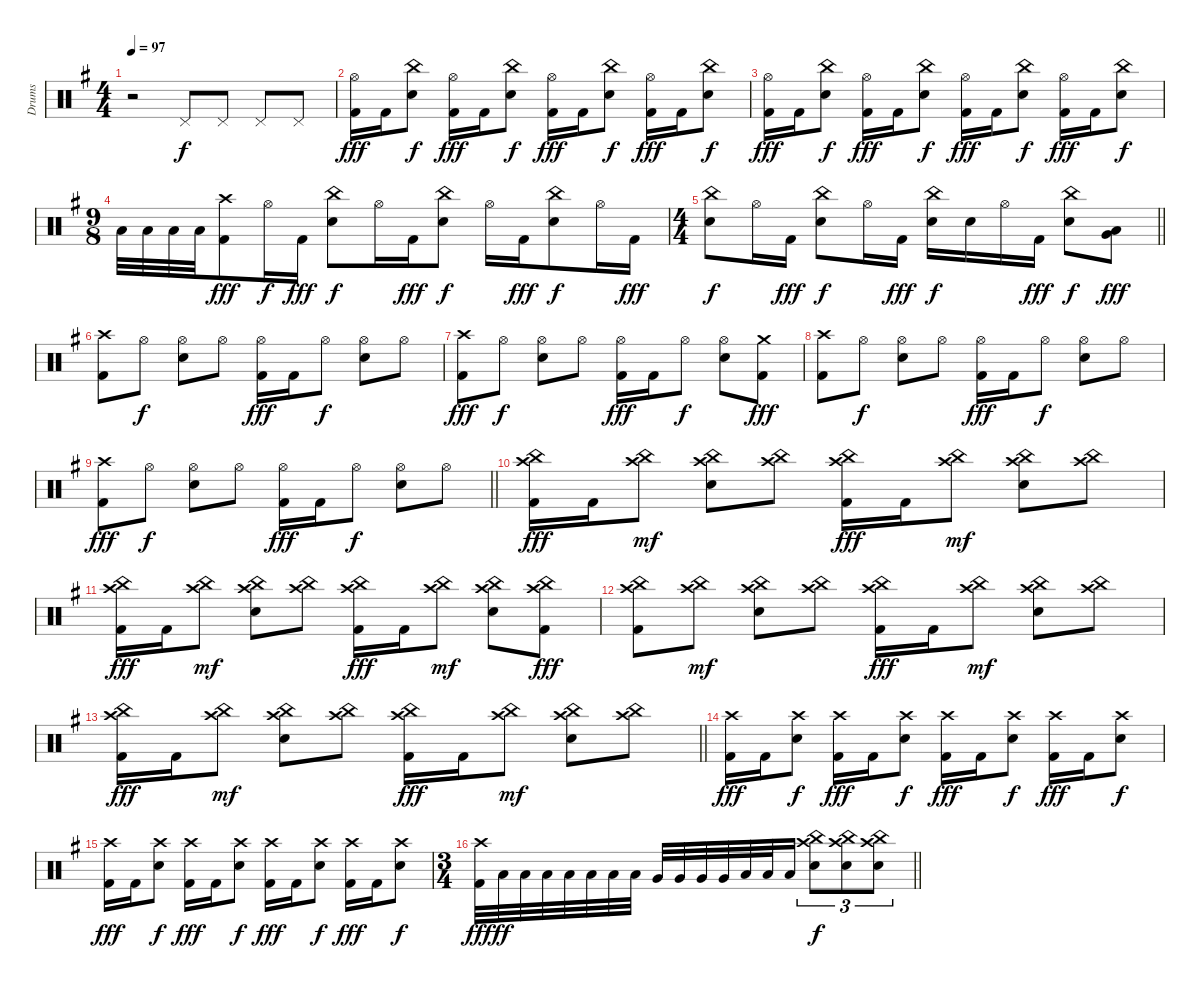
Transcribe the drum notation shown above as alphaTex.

\track ("Drums" "Drums") {instrument percussion}
\staff {score}
\articulation defaults
\ts (4 4)
\tempo 97
\clef neutral
\ks eminor
r.2{dy f} "Pedal Hi-Hat (hit)".8 "Pedal Hi-Hat (hit)".8 "Pedal Hi-Hat (hit)".8 "Pedal Hi-Hat (hit)".8 |
("Hi-Hat (open)" "Kick (hit) 2").16{dy fff} "Kick (hit) 2".16 ("China (hit)" "Snare (hit) 2").8{dy f} ("Hi-Hat (open)" "Kick (hit) 2").16{dy fff} "Kick (hit) 2".16 ("China (hit)" "Snare (hit) 2").8{dy f} ("Hi-Hat (open)" "Kick (hit) 2").16{dy fff} "Kick (hit) 2".16 ("China (hit)" "Snare (hit) 2").8{dy f} ("Hi-Hat (open)" "Kick (hit) 2").16{dy fff} "Kick (hit) 2".16 ("China (hit)" "Snare (hit) 2").8{dy f} |
("Hi-Hat (open)" "Kick (hit) 2").16{dy fff} "Kick (hit) 2".16 ("China (hit)" "Snare (hit) 2").8{dy f} ("Hi-Hat (open)" "Kick (hit) 2").16{dy fff} "Kick (hit) 2".16 ("China (hit)" "Snare (hit) 2").8{dy f} ("Hi-Hat (open)" "Kick (hit) 2").16{dy fff} "Kick (hit) 2".16 ("China (hit)" "Snare (hit) 2").8{dy f} ("Hi-Hat (open)" "Kick (hit) 2").16{dy fff} "Kick (hit) 2".16 ("China (hit)" "Snare (hit) 2").8{dy f} |
\ts (9 8)
"Low Tom (hit)".32 "Low Tom (hit)".32 "Low Tom (hit)".32 "Low Tom (hit)".32 ("Crash high (hit)" "Kick (hit) 2").8{dy fff} "Hi-Hat (open)".16{dy f} "Kick (hit) 2".16{dy fff} ("China (hit)" "Snare (hit) 2").8{dy f} "Hi-Hat (open)".16 "Kick (hit) 2".16{dy fff} ("China (hit)" "Snare (hit) 2").8{dy f} "Hi-Hat (open)".16 "Kick (hit) 2".16{dy fff} ("China (hit)" "Snare (hit) 2").8{dy f} "Hi-Hat (open)".16 "Kick (hit) 2".16{dy fff} |
\ts (4 4)
\barLineRight lightlight
("China (hit)" "Snare (hit) 2").8{dy f} "Hi-Hat (open)".16 "Kick (hit) 2".16{dy fff} ("China (hit)" "Snare (hit) 2").8{dy f} "Hi-Hat (open)".16 "Kick (hit) 2".16{dy fff} ("China (hit)" "Snare (hit) 2").16{dy f} "Snare (hit) 2".16 "Hi-Hat (open)".16 "Kick (hit) 2".16{dy fff} ("China (hit)" "Snare (hit) 2").8{dy f} ("Low Tom (hit)" "Very Low Tom (hit)").8{dy fff} |
("Crash high (hit)" "Kick (hit) 2").8 "Hi-Hat (open)".8{dy f} ("Hi-Hat (open)" "Snare (hit) 2").8 "Hi-Hat (open)".8 ("Hi-Hat (open)" "Kick (hit) 2").16{dy fff} "Kick (hit) 2".16 "Hi-Hat (open)".8{dy f} ("Hi-Hat (open)" "Snare (hit) 2").8 "Hi-Hat (open)".8 |
("Crash high (hit)" "Kick (hit) 2").8{dy fff} "Hi-Hat (open)".8{dy f} ("Hi-Hat (open)" "Snare (hit) 2").8 "Hi-Hat (open)".8 ("Hi-Hat (open)" "Kick (hit) 2").16{dy fff} "Kick (hit) 2".16 "Hi-Hat (open)".8{dy f} ("Hi-Hat (open)" "Snare (hit) 2").8 ("Crash medium (hit)" "Kick (hit) 2").8{dy fff} |
("Crash high (hit)" "Kick (hit) 2").8 "Hi-Hat (open)".8{dy f} ("Hi-Hat (open)" "Snare (hit) 2").8 "Hi-Hat (open)".8 ("Hi-Hat (open)" "Kick (hit) 2").16{dy fff} "Kick (hit) 2".16 "Hi-Hat (open)".8{dy f} ("Hi-Hat (open)" "Snare (hit) 2").8 "Hi-Hat (open)".8 |
\barLineRight lightlight
("Crash high (hit)" "Kick (hit) 2").8{dy fff} "Hi-Hat (open)".8{dy f} ("Hi-Hat (open)" "Snare (hit) 2").8 "Hi-Hat (open)".8 ("Hi-Hat (open)" "Kick (hit) 2").16{dy fff} "Kick (hit) 2".16 "Hi-Hat (open)".8{dy f} ("Hi-Hat (open)" "Snare (hit) 2").8 "Hi-Hat (open)".8 |
("Crash high (hit)" "China (hit)" "Kick (hit) 2").16{dy fff} "Kick (hit) 2".16 ("Crash high (hit)" "China (hit)").8{dy mf} ("Crash high (hit)" "China (hit)" "Snare (hit) 2").8 ("Crash high (hit)" "China (hit)").8 ("Crash high (hit)" "China (hit)" "Kick (hit) 2").16{dy fff} "Kick (hit) 2".16 ("Crash high (hit)" "China (hit)").8{dy mf} ("Crash high (hit)" "China (hit)" "Snare (hit) 2").8 ("Crash high (hit)" "China (hit)").8 |
("Crash high (hit)" "China (hit)" "Kick (hit) 2").16{dy fff} "Kick (hit) 2".16 ("Crash high (hit)" "China (hit)").8{dy mf} ("Crash high (hit)" "China (hit)" "Snare (hit) 2").8 ("Crash high (hit)" "China (hit)").8 ("Crash high (hit)" "China (hit)" "Kick (hit) 2").16{dy fff} "Kick (hit) 2".16 ("Crash high (hit)" "China (hit)").8{dy mf} ("Crash high (hit)" "China (hit)" "Snare (hit) 2").8 ("Crash high (hit)" "China (hit)" "Kick (hit) 2").8{dy fff} |
("Crash high (hit)" "China (hit)" "Kick (hit) 2").8 ("Crash high (hit)" "China (hit)").8{dy mf} ("Crash high (hit)" "China (hit)" "Snare (hit) 2").8 ("Crash high (hit)" "China (hit)").8 ("Crash high (hit)" "China (hit)" "Kick (hit) 2").16{dy fff} "Kick (hit) 2".16 ("Crash high (hit)" "China (hit)").8{dy mf} ("Crash high (hit)" "China (hit)" "Snare (hit) 2").8 ("Crash high (hit)" "China (hit)").8 |
\barLineRight lightlight
("Crash high (hit)" "China (hit)" "Kick (hit) 2").16{dy fff} "Kick (hit) 2".16 ("Crash high (hit)" "China (hit)").8{dy mf} ("Crash high (hit)" "China (hit)" "Snare (hit) 2").8 ("Crash high (hit)" "China (hit)").8 ("Crash high (hit)" "China (hit)" "Kick (hit) 2").16{dy fff} "Kick (hit) 2".16 ("Crash high (hit)" "China (hit)").8{dy mf} ("Crash high (hit)" "China (hit)" "Snare (hit) 2").8 ("Crash high (hit)" "China (hit)").8 |
("Crash high (hit)" "Kick (hit) 2").16{dy fff} "Kick (hit) 2".16 ("Crash high (hit)" "Snare (hit) 2").8{dy f} ("Crash high (hit)" "Kick (hit) 2").16{dy fff} "Kick (hit) 2".16 ("Crash high (hit)" "Snare (hit) 2").8{dy f} ("Crash high (hit)" "Kick (hit) 2").16{dy fff} "Kick (hit) 2".16 ("Crash high (hit)" "Snare (hit) 2").8{dy f} ("Crash high (hit)" "Kick (hit) 2").16{dy fff} "Kick (hit) 2".16 ("Crash high (hit)" "Snare (hit) 2").8{dy f} |
("Crash high (hit)" "Kick (hit) 2").16{dy fff} "Kick (hit) 2".16 ("Crash high (hit)" "Snare (hit) 2").8{dy f} ("Crash high (hit)" "Kick (hit) 2").16{dy fff} "Kick (hit) 2".16 ("Crash high (hit)" "Snare (hit) 2").8{dy f} ("Crash high (hit)" "Kick (hit) 2").16{dy fff} "Kick (hit) 2".16 ("Crash high (hit)" "Snare (hit) 2").8{dy f} ("Crash high (hit)" "Kick (hit) 2").16{dy fff} "Kick (hit) 2".16 ("Crash high (hit)" "Snare (hit) 2").8{dy f} |
\ts (3 4)
\barLineRight lightlight
("Crash high (hit)" "Kick (hit) 2").32{dy fff} "Low Tom (hit)".32{dy ff} "Low Tom (hit)".32 "Low Tom (hit)".32 "Low Tom (hit)".32 "Low Tom (hit)".32 "Low Tom (hit)".32 "Low Tom (hit)".32 "Very Low Tom (hit)".32 "Very Low Tom (hit)".32 "Very Low Tom (hit)".32 "Very Low Tom (hit)".32 "Low Floor Tom (hit)".32 "Low Floor Tom (hit)".32 "Low Floor Tom (hit)".16 ("Crash high (hit)" "China (hit)" "Snare (hit) 2").8{tu (3 2) dy f} ("Crash high (hit)" "China (hit)" "Snare (hit) 2").8{tu (3 2)} ("Crash high (hit)" "China (hit)" "Snare (hit) 2").8{tu (3 2)}
